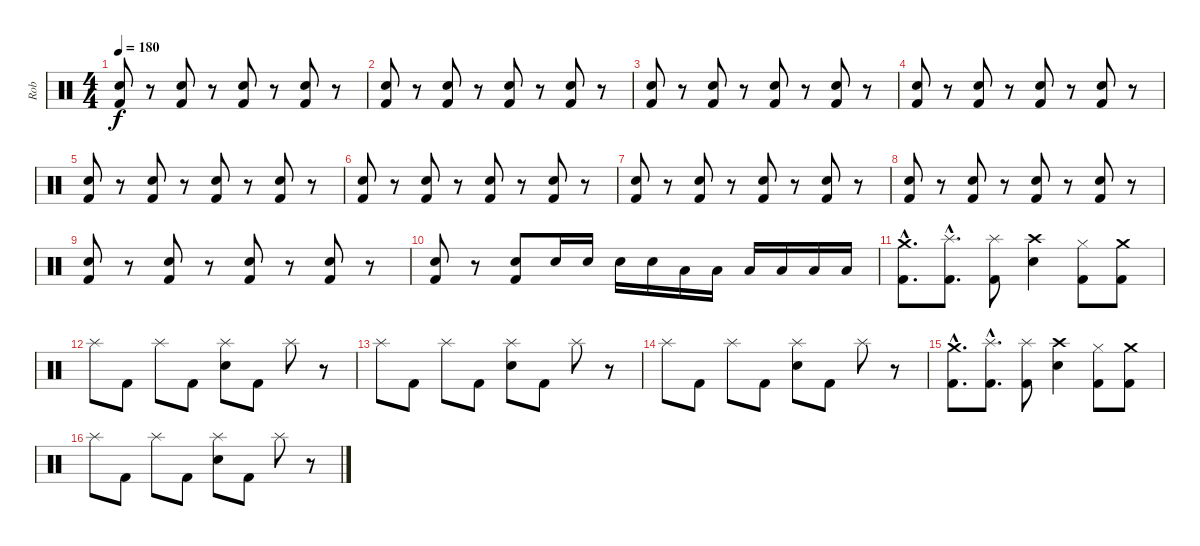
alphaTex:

\track ("Rob" "Rob") {instrument percussion}
\staff {score}
\articulation defaults
\ts (4 4)
\tempo 180
\clef neutral
\ks c
("Electric Snare (hit)" "Kick (hit) 2").8{dy f} r.8 ("Electric Snare (hit)" "Kick (hit) 2").8 r.8 ("Electric Snare (hit)" "Kick (hit) 2").8 r.8 ("Electric Snare (hit)" "Kick (hit) 2").8 r.8 |
("Electric Snare (hit)" "Kick (hit) 2").8 r.8 ("Electric Snare (hit)" "Kick (hit) 2").8 r.8 ("Electric Snare (hit)" "Kick (hit) 2").8 r.8 ("Electric Snare (hit)" "Kick (hit) 2").8 r.8 |
("Electric Snare (hit)" "Kick (hit) 2").8 r.8 ("Electric Snare (hit)" "Kick (hit) 2").8 r.8 ("Electric Snare (hit)" "Kick (hit) 2").8 r.8 ("Electric Snare (hit)" "Kick (hit) 2").8 r.8 |
("Electric Snare (hit)" "Kick (hit) 2").8 r.8 ("Electric Snare (hit)" "Kick (hit) 2").8 r.8 ("Electric Snare (hit)" "Kick (hit) 2").8 r.8 ("Electric Snare (hit)" "Kick (hit) 2").8 r.8 |
("Electric Snare (hit)" "Kick (hit) 2").8 r.8 ("Electric Snare (hit)" "Kick (hit) 2").8 r.8 ("Electric Snare (hit)" "Kick (hit) 2").8 r.8 ("Electric Snare (hit)" "Kick (hit) 2").8 r.8 |
("Electric Snare (hit)" "Kick (hit) 2").8 r.8 ("Electric Snare (hit)" "Kick (hit) 2").8 r.8 ("Electric Snare (hit)" "Kick (hit) 2").8 r.8 ("Electric Snare (hit)" "Kick (hit) 2").8 r.8 |
("Electric Snare (hit)" "Kick (hit) 2").8 r.8 ("Electric Snare (hit)" "Kick (hit) 2").8 r.8 ("Electric Snare (hit)" "Kick (hit) 2").8 r.8 ("Electric Snare (hit)" "Kick (hit) 2").8 r.8 |
("Electric Snare (hit)" "Kick (hit) 2").8 r.8 ("Electric Snare (hit)" "Kick (hit) 2").8 r.8 ("Electric Snare (hit)" "Kick (hit) 2").8 r.8 ("Electric Snare (hit)" "Kick (hit) 2").8 r.8 |
("Electric Snare (hit)" "Kick (hit) 2").8 r.8 ("Electric Snare (hit)" "Kick (hit) 2").8 r.8 ("Electric Snare (hit)" "Kick (hit) 2").8 r.8 ("Electric Snare (hit)" "Kick (hit) 2").8 r.8 |
("Electric Snare (hit)" "Kick (hit) 2").8 r.8 ("Electric Snare (hit)" "Kick (hit) 2").8 "Electric Snare (hit)".16 "Electric Snare (hit)".16 "Electric Snare (hit)".16 "Electric Snare (hit)".16 "Low Tom (hit)".16 "Low Tom (hit)".16 "Low Tom (hit)".16 "Low Tom (hit)".16 "Low Tom (hit)".16 "Low Tom (hit)".16 |
("Crash medium (hit)"{hac} "Kick (hit) 2"{hac}).8{d} ("Splash (hit)"{hac} "Kick (hit) 2"{hac}).8{d} ("Splash (hit)" "Kick (hit) 2").8 ("Crash high (hit)" "Electric Snare (hit)").4 ("Hi-Hat (closed)" "Kick (hit) 2").8 ("Crash medium (hit)" "Kick (hit) 2").8 |
"Splash (hit)".8 "Kick (hit) 2".8 "Splash (hit)".8 "Kick (hit) 2".8 ("Splash (hit)" "Electric Snare (hit)").8 "Kick (hit) 2".8 "Splash (hit)".8 r.8 |
"Splash (hit)".8 "Kick (hit) 2".8 "Splash (hit)".8 "Kick (hit) 2".8 ("Splash (hit)" "Electric Snare (hit)").8 "Kick (hit) 2".8 "Splash (hit)".8 r.8 |
"Splash (hit)".8 "Kick (hit) 2".8 "Splash (hit)".8 "Kick (hit) 2".8 ("Splash (hit)" "Electric Snare (hit)").8 "Kick (hit) 2".8 "Splash (hit)".8 r.8 |
("Crash medium (hit)"{hac} "Kick (hit) 2"{hac}).8{d} ("Splash (hit)"{hac} "Kick (hit) 2"{hac}).8{d} ("Splash (hit)" "Kick (hit) 2").8 ("Crash high (hit)" "Electric Snare (hit)").4 ("Hi-Hat (closed)" "Kick (hit) 2").8 ("Crash medium (hit)" "Kick (hit) 2").8 |
"Splash (hit)".8 "Kick (hit) 2".8 "Splash (hit)".8 "Kick (hit) 2".8 ("Splash (hit)" "Electric Snare (hit)").8 "Kick (hit) 2".8 "Splash (hit)".8 r.8
